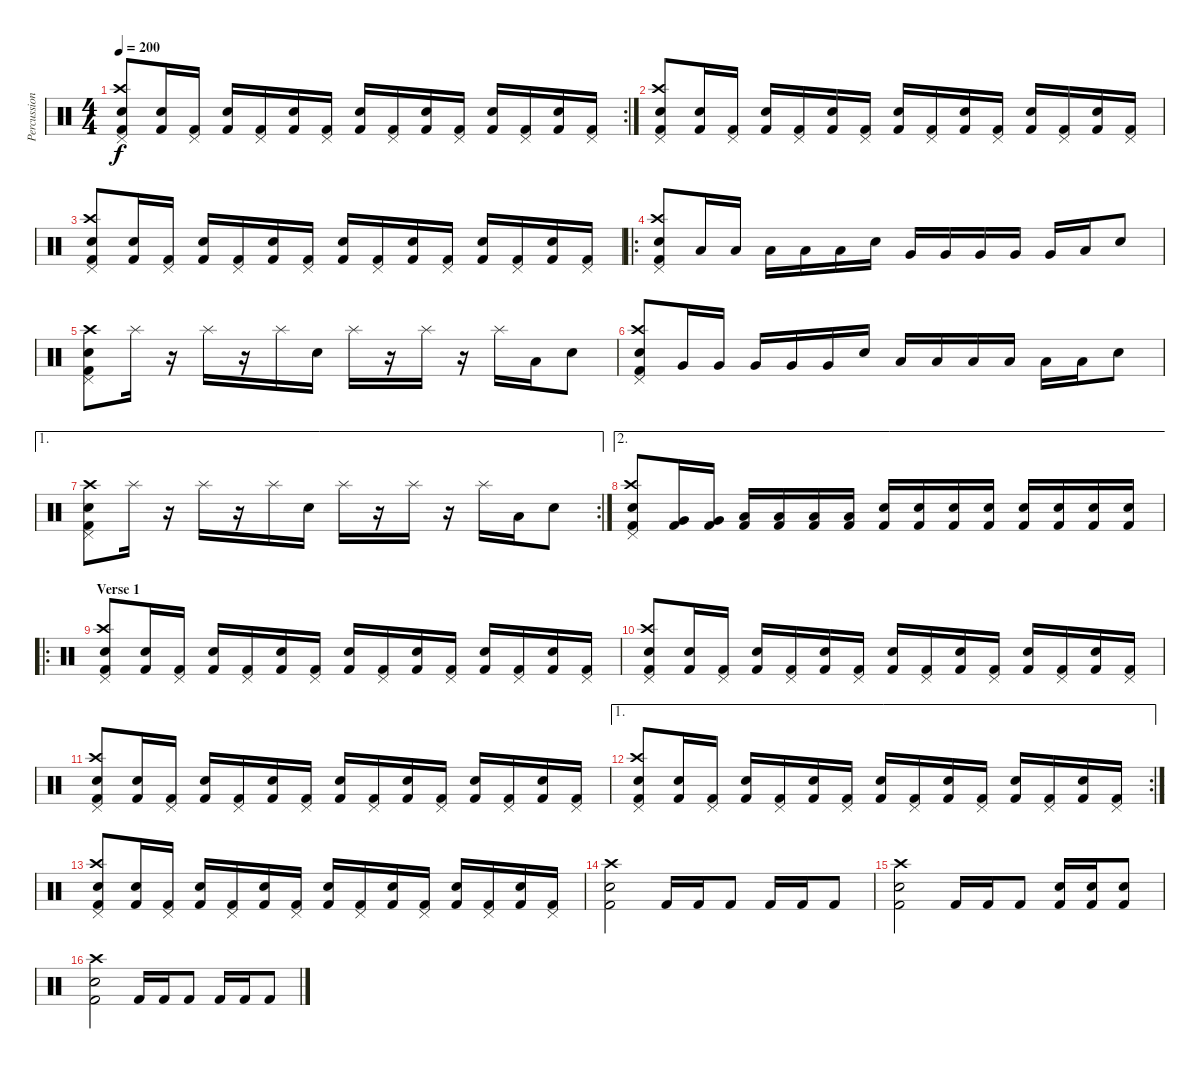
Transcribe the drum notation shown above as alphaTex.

\track ("Percussion" "Percussion") {instrument percussion}
\staff {score}
\articulation defaults
\rc 2
\ts (4 4)
\tempo 200
\clef neutral
\ks c
("Pedal Hi-Hat (hit)" "Crash high (hit)" "Snare (hit) 2" "Kick (hit) 2").8{dy f} ("Snare (hit) 2" "Kick (hit) 2").16 ("Pedal Hi-Hat (hit)" "Kick (hit) 2").16 ("Snare (hit) 2" "Kick (hit) 2").16 ("Pedal Hi-Hat (hit)" "Kick (hit) 2").16 ("Snare (hit) 2" "Kick (hit) 2").16 ("Pedal Hi-Hat (hit)" "Kick (hit) 2").16 ("Snare (hit) 2" "Kick (hit) 2").16 ("Pedal Hi-Hat (hit)" "Kick (hit) 2").16 ("Snare (hit) 2" "Kick (hit) 2").16 ("Pedal Hi-Hat (hit)" "Kick (hit) 2").16 ("Snare (hit) 2" "Kick (hit) 2").16 ("Pedal Hi-Hat (hit)" "Kick (hit) 2").16 ("Snare (hit) 2" "Kick (hit) 2").16 ("Pedal Hi-Hat (hit)" "Kick (hit) 2").16 |
("Pedal Hi-Hat (hit)" "Crash high (hit)" "Snare (hit) 2" "Kick (hit) 2").8 ("Snare (hit) 2" "Kick (hit) 2").16 ("Pedal Hi-Hat (hit)" "Kick (hit) 2").16 ("Snare (hit) 2" "Kick (hit) 2").16 ("Pedal Hi-Hat (hit)" "Kick (hit) 2").16 ("Snare (hit) 2" "Kick (hit) 2").16 ("Pedal Hi-Hat (hit)" "Kick (hit) 2").16 ("Snare (hit) 2" "Kick (hit) 2").16 ("Pedal Hi-Hat (hit)" "Kick (hit) 2").16 ("Snare (hit) 2" "Kick (hit) 2").16 ("Pedal Hi-Hat (hit)" "Kick (hit) 2").16 ("Snare (hit) 2" "Kick (hit) 2").16 ("Pedal Hi-Hat (hit)" "Kick (hit) 2").16 ("Snare (hit) 2" "Kick (hit) 2").16 ("Pedal Hi-Hat (hit)" "Kick (hit) 2").16 |
("Pedal Hi-Hat (hit)" "Crash high (hit)" "Snare (hit) 2" "Kick (hit) 2").8 ("Snare (hit) 2" "Kick (hit) 2").16 ("Pedal Hi-Hat (hit)" "Kick (hit) 2").16 ("Snare (hit) 2" "Kick (hit) 2").16 ("Pedal Hi-Hat (hit)" "Kick (hit) 2").16 ("Snare (hit) 2" "Kick (hit) 2").16 ("Pedal Hi-Hat (hit)" "Kick (hit) 2").16 ("Snare (hit) 2" "Kick (hit) 2").16 ("Pedal Hi-Hat (hit)" "Kick (hit) 2").16 ("Snare (hit) 2" "Kick (hit) 2").16 ("Pedal Hi-Hat (hit)" "Kick (hit) 2").16 ("Snare (hit) 2" "Kick (hit) 2").16 ("Pedal Hi-Hat (hit)" "Kick (hit) 2").16 ("Snare (hit) 2" "Kick (hit) 2").16 ("Pedal Hi-Hat (hit)" "Kick (hit) 2").16 |
\ro
("Pedal Hi-Hat (hit)" "Crash high (hit)" "Snare (hit) 2" "Kick (hit) 2").8 "Low Tom (hit)".16 "Low Tom (hit)".16 "Low Tom (hit)".16 "Low Tom (hit)".16 "Low Tom (hit)".16 "Snare (hit) 2".16 "Very Low Tom (hit)".16 "Very Low Tom (hit)".16 "Very Low Tom (hit)".16 "Very Low Tom (hit)".16 "Very Low Tom (hit)".16 "Low Tom (hit)".16 "Snare (hit) 2".8 |
("Pedal Hi-Hat (hit)" "Crash high (hit)" "Snare (hit) 2" "Kick (hit) 2").8 "Splash (hit)".16 r.16 "Splash (hit)".16 r.16 "Splash (hit)".16 "Snare (hit) 2".16 "Splash (hit)".16 r.16 "Splash (hit)".16 r.16 "Splash (hit)".16 "Low Tom (hit)".16 "Snare (hit) 2".8 |
("Pedal Hi-Hat (hit)" "Crash high (hit)" "Snare (hit) 2" "Kick (hit) 2").8 "Very Low Tom (hit)".16 "Very Low Tom (hit)".16 "Very Low Tom (hit)".16 "Very Low Tom (hit)".16 "Very Low Tom (hit)".16 "Snare (hit) 2".16 "Low Floor Tom (hit)".16 "Low Floor Tom (hit)".16 "Low Floor Tom (hit)".16 "Low Floor Tom (hit)".16 "Low Floor Tom (hit)".16 "Low Tom (hit)".16 "Snare (hit) 2".8 |
\ae 1
\rc 2
("Pedal Hi-Hat (hit)" "Crash high (hit)" "Snare (hit) 2" "Kick (hit) 2").8 "Splash (hit)".16 r.16 "Splash (hit)".16 r.16 "Splash (hit)".16 "Snare (hit) 2".16 "Splash (hit)".16 r.16 "Splash (hit)".16 r.16 "Splash (hit)".16 "Low Tom (hit)".16 "Snare (hit) 2".8 |
\ae 2
("Pedal Hi-Hat (hit)" "Crash high (hit)" "Snare (hit) 2" "Kick (hit) 2").8 ("Very Low Tom (hit)" "Kick (hit) 2").16 ("Very Low Tom (hit)" "Kick (hit) 2").16 ("Low Tom (hit)" "Kick (hit) 2").16 ("Low Tom (hit)" "Kick (hit) 2").16 ("Low Tom (hit)" "Kick (hit) 2").16 ("Low Tom (hit)" "Kick (hit) 2").16 ("Electric Snare (hit)" "Kick (hit) 2").16 ("Electric Snare (hit)" "Kick (hit) 2").16 ("Electric Snare (hit)" "Kick (hit) 2").16 ("Electric Snare (hit)" "Kick (hit) 2").16 ("Snare (hit) 2" "Kick (hit) 2").16 ("Snare (hit) 2" "Kick (hit) 2").16 ("Snare (hit) 2" "Kick (hit) 2").16 ("Snare (hit) 2" "Kick (hit) 2").16 |
\ro
\section ("" "Verse 1")
("Pedal Hi-Hat (hit)" "Crash high (hit)" "Snare (hit) 2" "Kick (hit) 2").8 ("Snare (hit) 2" "Kick (hit) 2").16 ("Pedal Hi-Hat (hit)" "Kick (hit) 2").16 ("Snare (hit) 2" "Kick (hit) 2").16 ("Pedal Hi-Hat (hit)" "Kick (hit) 2").16 ("Snare (hit) 2" "Kick (hit) 2").16 ("Pedal Hi-Hat (hit)" "Kick (hit) 2").16 ("Snare (hit) 2" "Kick (hit) 2").16 ("Pedal Hi-Hat (hit)" "Kick (hit) 2").16 ("Snare (hit) 2" "Kick (hit) 2").16 ("Pedal Hi-Hat (hit)" "Kick (hit) 2").16 ("Snare (hit) 2" "Kick (hit) 2").16 ("Pedal Hi-Hat (hit)" "Kick (hit) 2").16 ("Snare (hit) 2" "Kick (hit) 2").16 ("Pedal Hi-Hat (hit)" "Kick (hit) 2").16 |
("Pedal Hi-Hat (hit)" "Crash high (hit)" "Snare (hit) 2" "Kick (hit) 2").8 ("Snare (hit) 2" "Kick (hit) 2").16 ("Pedal Hi-Hat (hit)" "Kick (hit) 2").16 ("Snare (hit) 2" "Kick (hit) 2").16 ("Pedal Hi-Hat (hit)" "Kick (hit) 2").16 ("Snare (hit) 2" "Kick (hit) 2").16 ("Pedal Hi-Hat (hit)" "Kick (hit) 2").16 ("Snare (hit) 2" "Kick (hit) 2").16 ("Pedal Hi-Hat (hit)" "Kick (hit) 2").16 ("Snare (hit) 2" "Kick (hit) 2").16 ("Pedal Hi-Hat (hit)" "Kick (hit) 2").16 ("Snare (hit) 2" "Kick (hit) 2").16 ("Pedal Hi-Hat (hit)" "Kick (hit) 2").16 ("Snare (hit) 2" "Kick (hit) 2").16 ("Pedal Hi-Hat (hit)" "Kick (hit) 2").16 |
("Pedal Hi-Hat (hit)" "Crash high (hit)" "Snare (hit) 2" "Kick (hit) 2").8 ("Snare (hit) 2" "Kick (hit) 2").16 ("Pedal Hi-Hat (hit)" "Kick (hit) 2").16 ("Snare (hit) 2" "Kick (hit) 2").16 ("Pedal Hi-Hat (hit)" "Kick (hit) 2").16 ("Snare (hit) 2" "Kick (hit) 2").16 ("Pedal Hi-Hat (hit)" "Kick (hit) 2").16 ("Snare (hit) 2" "Kick (hit) 2").16 ("Pedal Hi-Hat (hit)" "Kick (hit) 2").16 ("Snare (hit) 2" "Kick (hit) 2").16 ("Pedal Hi-Hat (hit)" "Kick (hit) 2").16 ("Snare (hit) 2" "Kick (hit) 2").16 ("Pedal Hi-Hat (hit)" "Kick (hit) 2").16 ("Snare (hit) 2" "Kick (hit) 2").16 ("Pedal Hi-Hat (hit)" "Kick (hit) 2").16 |
\ae 1
\rc 2
("Pedal Hi-Hat (hit)" "Crash high (hit)" "Snare (hit) 2" "Kick (hit) 2").8 ("Snare (hit) 2" "Kick (hit) 2").16 ("Pedal Hi-Hat (hit)" "Kick (hit) 2").16 ("Snare (hit) 2" "Kick (hit) 2").16 ("Pedal Hi-Hat (hit)" "Kick (hit) 2").16 ("Snare (hit) 2" "Kick (hit) 2").16 ("Pedal Hi-Hat (hit)" "Kick (hit) 2").16 ("Snare (hit) 2" "Kick (hit) 2").16 ("Pedal Hi-Hat (hit)" "Kick (hit) 2").16 ("Snare (hit) 2" "Kick (hit) 2").16 ("Pedal Hi-Hat (hit)" "Kick (hit) 2").16 ("Snare (hit) 2" "Kick (hit) 2").16 ("Pedal Hi-Hat (hit)" "Kick (hit) 2").16 ("Snare (hit) 2" "Kick (hit) 2").16 ("Pedal Hi-Hat (hit)" "Kick (hit) 2").16 |
("Pedal Hi-Hat (hit)" "Crash high (hit)" "Snare (hit) 2" "Kick (hit) 2").8 ("Snare (hit) 2" "Kick (hit) 2").16 ("Pedal Hi-Hat (hit)" "Kick (hit) 2").16 ("Snare (hit) 2" "Kick (hit) 2").16 ("Pedal Hi-Hat (hit)" "Kick (hit) 2").16 ("Snare (hit) 2" "Kick (hit) 2").16 ("Pedal Hi-Hat (hit)" "Kick (hit) 2").16 ("Snare (hit) 2" "Kick (hit) 2").16 ("Pedal Hi-Hat (hit)" "Kick (hit) 2").16 ("Snare (hit) 2" "Kick (hit) 2").16 ("Pedal Hi-Hat (hit)" "Kick (hit) 2").16 ("Snare (hit) 2" "Kick (hit) 2").16 ("Pedal Hi-Hat (hit)" "Kick (hit) 2").16 ("Snare (hit) 2" "Kick (hit) 2").16 ("Pedal Hi-Hat (hit)" "Kick (hit) 2").16 |
("Crash high (hit)" "Snare (hit) 2" "Kick (hit) 2").2 "Kick (hit) 2".16 "Kick (hit) 2".16 "Kick (hit) 2".8 "Kick (hit) 2".16 "Kick (hit) 2".16 "Kick (hit) 2".8 |
("Crash high (hit)" "Snare (hit) 2" "Kick (hit) 2").2 "Kick (hit) 2".16 "Kick (hit) 2".16 "Kick (hit) 2".8 ("Snare (hit) 2" "Kick (hit) 2").16 ("Snare (hit) 2" "Kick (hit) 2").16 ("Snare (hit) 2" "Kick (hit) 2").8 |
("Crash high (hit)" "Snare (hit) 2" "Kick (hit) 2").2 "Kick (hit) 2".16 "Kick (hit) 2".16 "Kick (hit) 2".8 "Kick (hit) 2".16 "Kick (hit) 2".16 "Kick (hit) 2".8
